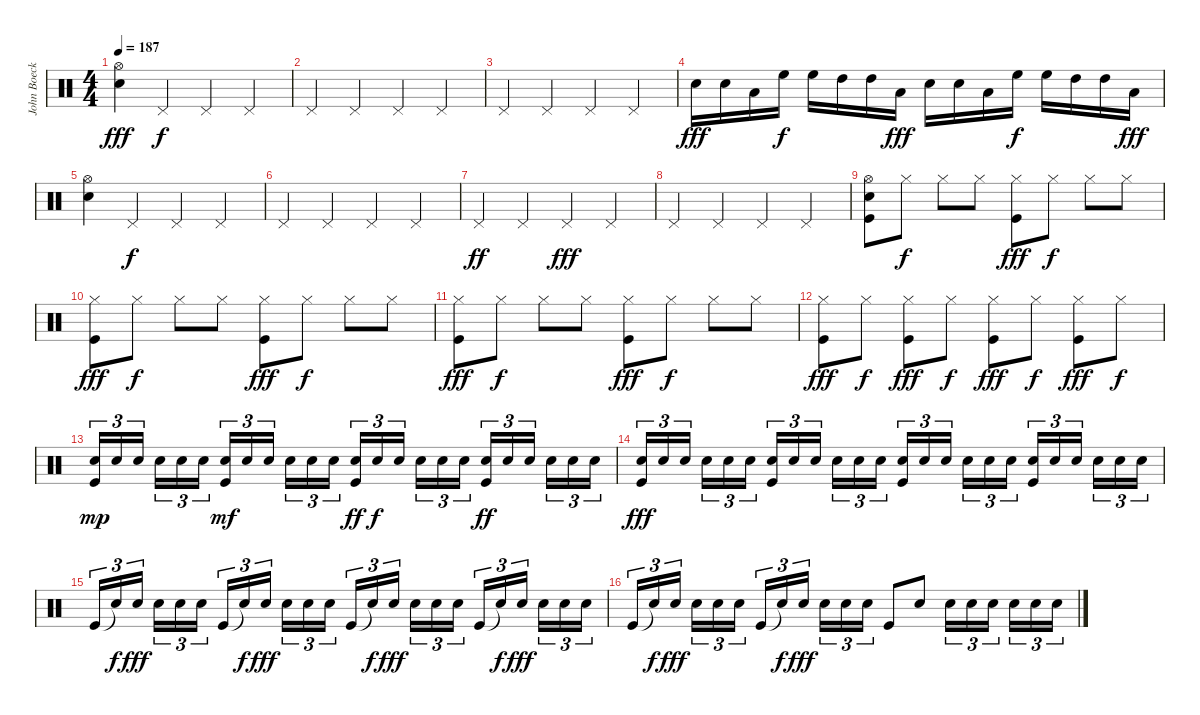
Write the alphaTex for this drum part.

\track ("John Boecklin - Drums" "John Boeck") {instrument percussion}
\staff {score}
\articulation defaults
\ts (4 4)
\tempo 187
\clef neutral
\ks c
("Snare (hit) 2" "Hi-Hat (open)").4{dy fff} "Pedal Hi-Hat (hit)".4{dy f} "Pedal Hi-Hat (hit)".4 "Pedal Hi-Hat (hit)".4 |
"Pedal Hi-Hat (hit)".4 "Pedal Hi-Hat (hit)".4 "Pedal Hi-Hat (hit)".4 "Pedal Hi-Hat (hit)".4 |
"Pedal Hi-Hat (hit)".4 "Pedal Hi-Hat (hit)".4 "Pedal Hi-Hat (hit)".4 "Pedal Hi-Hat (hit)".4 |
"Snare (hit) 2".16{dy fff} "Snare (hit) 2".16 "Low Tom (hit)".16 "High Floor Tom (hit)".16{dy f} "High Floor Tom (hit)".16 "High Tom (hit)".16 "High Tom (hit)".16 "Low Tom (hit)".16{dy fff} "Snare (hit) 2".16 "Snare (hit) 2".16 "Low Tom (hit)".16 "High Floor Tom (hit)".16{dy f} "High Floor Tom (hit)".16 "High Tom (hit)".16 "High Tom (hit)".16 "Low Tom (hit)".16{dy fff} |
("Snare (hit) 2" "Hi-Hat (open)").4 "Pedal Hi-Hat (hit)".4{dy f} "Pedal Hi-Hat (hit)".4 "Pedal Hi-Hat (hit)".4 |
"Pedal Hi-Hat (hit)".4 "Pedal Hi-Hat (hit)".4 "Pedal Hi-Hat (hit)".4 "Pedal Hi-Hat (hit)".4 |
"Pedal Hi-Hat (hit)".4{dy ff} "Pedal Hi-Hat (hit)".4 "Pedal Hi-Hat (hit)".4{dy fff} "Pedal Hi-Hat (hit)".4 |
"Pedal Hi-Hat (hit)".4 "Pedal Hi-Hat (hit)".4 "Pedal Hi-Hat (hit)".4 "Pedal Hi-Hat (hit)".4 |
("Snare (hit) 2" "Hi-Hat (open)" "Kick (hit)").8 "Hi-Hat (closed)".8{dy f} "Hi-Hat (closed)".8 "Hi-Hat (closed)".8 ("Hi-Hat (closed)" "Kick (hit)").8{dy fff} "Hi-Hat (closed)".8{dy f} "Hi-Hat (closed)".8 "Hi-Hat (closed)".8 |
("Hi-Hat (closed)" "Kick (hit)").8{dy fff} "Hi-Hat (closed)".8{dy f} "Hi-Hat (closed)".8 "Hi-Hat (closed)".8 ("Hi-Hat (closed)" "Kick (hit)").8{dy fff} "Hi-Hat (closed)".8{dy f} "Hi-Hat (closed)".8 "Hi-Hat (closed)".8 |
("Hi-Hat (closed)" "Kick (hit)").8{dy fff} "Hi-Hat (closed)".8{dy f} "Hi-Hat (closed)".8 "Hi-Hat (closed)".8 ("Hi-Hat (closed)" "Kick (hit)").8{dy fff} "Hi-Hat (closed)".8{dy f} "Hi-Hat (closed)".8 "Hi-Hat (closed)".8 |
("Hi-Hat (closed)" "Kick (hit)").8{dy fff} "Hi-Hat (closed)".8{dy f} ("Hi-Hat (closed)" "Kick (hit)").8{dy fff} "Hi-Hat (closed)".8{dy f} ("Hi-Hat (closed)" "Kick (hit)").8{dy fff} "Hi-Hat (closed)".8{dy f} ("Hi-Hat (closed)" "Kick (hit)").8{dy fff} "Hi-Hat (closed)".8{dy f} |
("Snare (hit) 2" "Kick (hit)").16{tu (3 2) dy mp} "Snare (hit) 2".16{tu (3 2)} "Snare (hit) 2".16{tu (3 2)} "Snare (hit) 2".16{tu (3 2)} "Snare (hit) 2".16{tu (3 2)} "Snare (hit) 2".16{tu (3 2)} ("Snare (hit) 2" "Kick (hit)").16{tu (3 2) dy mf} "Snare (hit) 2".16{tu (3 2)} "Snare (hit) 2".16{tu (3 2)} "Snare (hit) 2".16{tu (3 2)} "Snare (hit) 2".16{tu (3 2)} "Snare (hit) 2".16{tu (3 2)} ("Snare (hit) 2" "Kick (hit)").16{tu (3 2) dy ff} "Snare (hit) 2".16{tu (3 2) dy f} "Snare (hit) 2".16{tu (3 2)} "Snare (hit) 2".16{tu (3 2)} "Snare (hit) 2".16{tu (3 2)} "Snare (hit) 2".16{tu (3 2)} ("Snare (hit) 2" "Kick (hit)").16{tu (3 2) dy ff} "Snare (hit) 2".16{tu (3 2)} "Snare (hit) 2".16{tu (3 2)} "Snare (hit) 2".16{tu (3 2)} "Snare (hit) 2".16{tu (3 2)} "Snare (hit) 2".16{tu (3 2)} |
("Snare (hit) 2" "Kick (hit)").16{tu (3 2) dy fff} "Snare (hit) 2".16{tu (3 2)} "Snare (hit) 2".16{tu (3 2)} "Snare (hit) 2".16{tu (3 2)} "Snare (hit) 2".16{tu (3 2)} "Snare (hit) 2".16{tu (3 2)} ("Snare (hit) 2" "Kick (hit)").16{tu (3 2)} "Snare (hit) 2".16{tu (3 2)} "Snare (hit) 2".16{tu (3 2)} "Snare (hit) 2".16{tu (3 2)} "Snare (hit) 2".16{tu (3 2)} "Snare (hit) 2".16{tu (3 2)} ("Snare (hit) 2" "Kick (hit)").16{tu (3 2)} "Snare (hit) 2".16{tu (3 2)} "Snare (hit) 2".16{tu (3 2)} "Snare (hit) 2".16{tu (3 2)} "Snare (hit) 2".16{tu (3 2)} "Snare (hit) 2".16{tu (3 2)} ("Snare (hit) 2" "Kick (hit)").16{tu (3 2)} "Snare (hit) 2".16{tu (3 2)} "Snare (hit) 2".16{tu (3 2)} "Snare (hit) 2".16{tu (3 2)} "Snare (hit) 2".16{tu (3 2)} "Snare (hit) 2".16{tu (3 2)} |
"Kick (hit)".16{tu (3 2)} "Snare (hit)"{t}.16{tu (3 2) dy f} "Snare (hit) 2".16{tu (3 2) dy fff} "Snare (hit) 2".16{tu (3 2)} "Snare (hit) 2".16{tu (3 2)} "Snare (hit) 2".16{tu (3 2)} "Kick (hit)".16{tu (3 2)} "Snare (hit)"{t}.16{tu (3 2) dy f} "Snare (hit) 2".16{tu (3 2) dy fff} "Snare (hit) 2".16{tu (3 2)} "Snare (hit) 2".16{tu (3 2)} "Snare (hit) 2".16{tu (3 2)} "Kick (hit)".16{tu (3 2)} "Snare (hit)"{t}.16{tu (3 2) dy f} "Snare (hit) 2".16{tu (3 2) dy fff} "Snare (hit) 2".16{tu (3 2)} "Snare (hit) 2".16{tu (3 2)} "Snare (hit) 2".16{tu (3 2)} "Kick (hit)".16{tu (3 2)} "Snare (hit)"{t}.16{tu (3 2) dy f} "Snare (hit) 2".16{tu (3 2) dy fff} "Snare (hit) 2".16{tu (3 2)} "Snare (hit) 2".16{tu (3 2)} "Snare (hit) 2".16{tu (3 2)} |
"Kick (hit)".16{tu (3 2)} "Snare (hit)"{t}.16{tu (3 2) dy f} "Snare (hit) 2".16{tu (3 2) dy fff} "Snare (hit) 2".16{tu (3 2)} "Snare (hit) 2".16{tu (3 2)} "Snare (hit) 2".16{tu (3 2)} "Kick (hit)".16{tu (3 2)} "Snare (hit)"{t}.16{tu (3 2) dy f} "Snare (hit) 2".16{tu (3 2) dy fff} "Snare (hit) 2".16{tu (3 2)} "Snare (hit) 2".16{tu (3 2)} "Snare (hit) 2".16{tu (3 2)} "Kick (hit)".8 "Snare (hit) 2".8 "Snare (hit) 2".16{tu (3 2)} "Snare (hit) 2".16{tu (3 2)} "Snare (hit) 2".16{tu (3 2)} "Snare (hit) 2".16{tu (3 2)} "Snare (hit) 2".16{tu (3 2)} "Snare (hit) 2".16{tu (3 2)}
